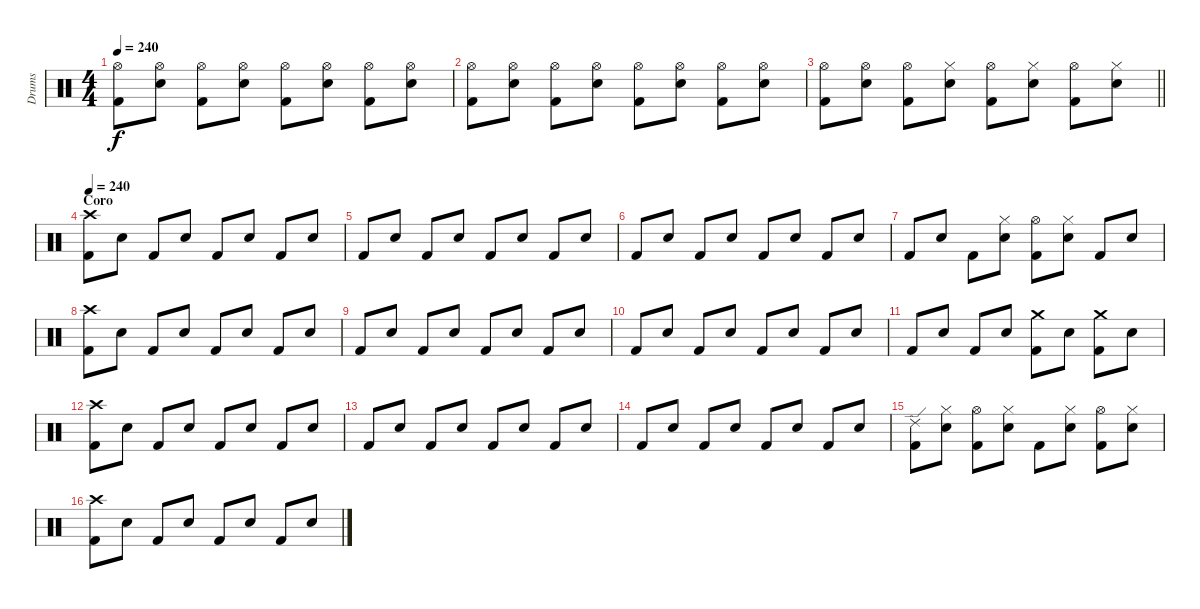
\track ("Drums" "Drums") {instrument percussion}
\staff {score}
\articulation defaults
\ts (4 4)
\tempo 240
\clef neutral
\ks c
("Hi-Hat (open)" "Kick (hit) 2").8{dy f} ("Hi-Hat (open)" "Snare (hit) 2").8 ("Hi-Hat (open)" "Kick (hit) 2").8 ("Hi-Hat (open)" "Snare (hit) 2").8 ("Hi-Hat (open)" "Kick (hit) 2").8 ("Hi-Hat (open)" "Snare (hit) 2").8 ("Hi-Hat (open)" "Kick (hit) 2").8 ("Hi-Hat (open)" "Snare (hit) 2").8 |
("Hi-Hat (open)" "Kick (hit) 2").8 ("Hi-Hat (open)" "Snare (hit) 2").8 ("Hi-Hat (open)" "Kick (hit) 2").8 ("Hi-Hat (open)" "Snare (hit) 2").8 ("Hi-Hat (open)" "Kick (hit) 2").8 ("Hi-Hat (open)" "Snare (hit) 2").8 ("Hi-Hat (open)" "Kick (hit) 2").8 ("Hi-Hat (open)" "Snare (hit) 2").8 |
\barLineRight lightlight
("Hi-Hat (open)" "Kick (hit) 2").8 ("Hi-Hat (open)" "Snare (hit) 2").8 ("Hi-Hat (open)" "Kick (hit) 2").8 ("Hi-Hat (closed)" "Snare (hit) 2").8 ("Hi-Hat (open)" "Kick (hit) 2").8 ("Hi-Hat (closed)" "Snare (hit) 2").8 ("Hi-Hat (open)" "Kick (hit) 2").8 ("Hi-Hat (closed)" "Snare (hit) 2").8 |
\section ("" "Coro")
\tempo 240
("Crash high (hit)" "Kick (hit) 2").8 "Snare (hit) 2".8 "Kick (hit) 2".8 "Snare (hit) 2".8 "Kick (hit) 2".8 "Snare (hit) 2".8 "Kick (hit) 2".8 "Snare (hit) 2".8 |
"Kick (hit) 2".8 "Snare (hit) 2".8 "Kick (hit) 2".8 "Snare (hit) 2".8 "Kick (hit) 2".8 "Snare (hit) 2".8 "Kick (hit) 2".8 "Snare (hit) 2".8 |
"Kick (hit) 2".8 "Snare (hit) 2".8 "Kick (hit) 2".8 "Snare (hit) 2".8 "Kick (hit) 2".8 "Snare (hit) 2".8 "Kick (hit) 2".8 "Snare (hit) 2".8 |
"Kick (hit) 2".8 "Snare (hit) 2".8 "Kick (hit) 2".8 ("Hi-Hat (closed)" "Snare (hit) 2").8 ("Hi-Hat (open)" "Kick (hit) 2").8 ("Hi-Hat (closed)" "Snare (hit) 2").8 "Kick (hit) 2".8 "Snare (hit) 2".8 |
("Crash high (hit)" "Kick (hit) 2").8 "Snare (hit) 2".8 "Kick (hit) 2".8 "Snare (hit) 2".8 "Kick (hit) 2".8 "Snare (hit) 2".8 "Kick (hit) 2".8 "Snare (hit) 2".8 |
"Kick (hit) 2".8 "Snare (hit) 2".8 "Kick (hit) 2".8 "Snare (hit) 2".8 "Kick (hit) 2".8 "Snare (hit) 2".8 "Kick (hit) 2".8 "Snare (hit) 2".8 |
"Kick (hit) 2".8 "Snare (hit) 2".8 "Kick (hit) 2".8 "Snare (hit) 2".8 "Kick (hit) 2".8 "Snare (hit) 2".8 "Kick (hit) 2".8 "Snare (hit) 2".8 |
"Kick (hit) 2".8 "Snare (hit) 2".8 "Kick (hit) 2".8 "Snare (hit) 2".8 ("Crash medium (hit)" "Kick (hit) 2").8 "Snare (hit) 2".8 ("Crash medium (hit)" "Kick (hit) 2").8 "Snare (hit) 2".8 |
("Crash high (hit)" "Kick (hit) 2").8 "Snare (hit) 2".8 "Kick (hit) 2".8 "Snare (hit) 2".8 "Kick (hit) 2".8 "Snare (hit) 2".8 "Kick (hit) 2".8 "Snare (hit) 2".8 |
"Kick (hit) 2".8 "Snare (hit) 2".8 "Kick (hit) 2".8 "Snare (hit) 2".8 "Kick (hit) 2".8 "Snare (hit) 2".8 "Kick (hit) 2".8 "Snare (hit) 2".8 |
"Kick (hit) 2".8 "Snare (hit) 2".8 "Kick (hit) 2".8 "Snare (hit) 2".8 "Kick (hit) 2".8 "Snare (hit) 2".8 "Kick (hit) 2".8 "Snare (hit) 2".8 |
("Ride (edge) 2" "Kick (hit) 2").8 ("Hi-Hat (closed)" "Snare (hit) 2").8 ("Hi-Hat (open)" "Kick (hit) 2").8 ("Hi-Hat (closed)" "Snare (hit) 2").8 "Kick (hit) 2".8 ("Hi-Hat (closed)" "Snare (hit) 2").8 ("Hi-Hat (open)" "Kick (hit) 2").8 ("Hi-Hat (closed)" "Snare (hit) 2").8 |
("Crash high (hit)" "Kick (hit) 2").8 "Snare (hit) 2".8 "Kick (hit) 2".8 "Snare (hit) 2".8 "Kick (hit) 2".8 "Snare (hit) 2".8 "Kick (hit) 2".8 "Snare (hit) 2".8
